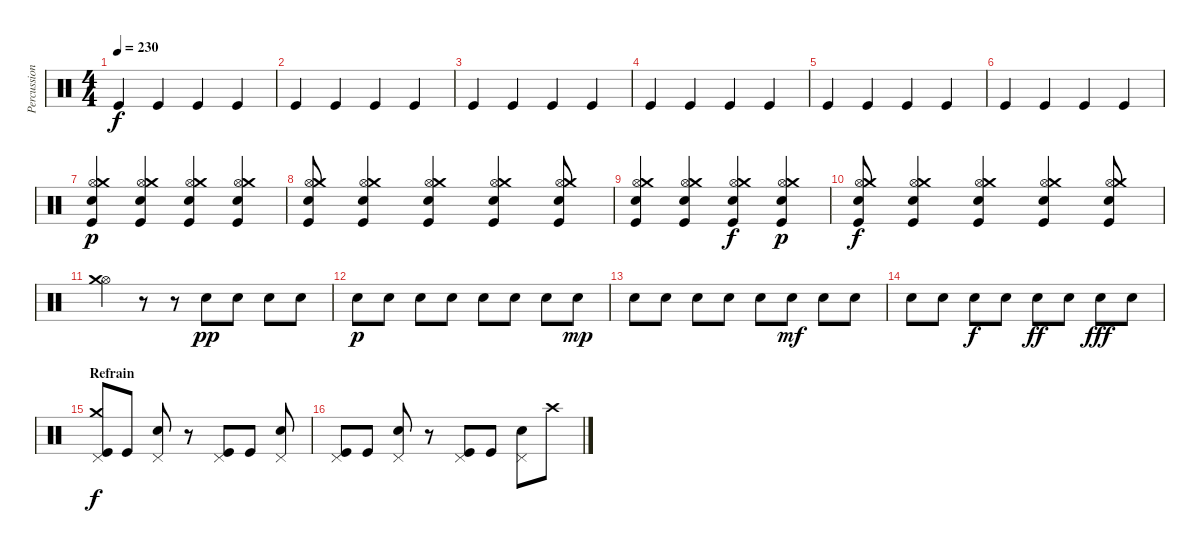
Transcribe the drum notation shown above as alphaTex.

\track ("Percussion" "Percussion") {instrument percussion}
\staff {score}
\articulation defaults
\ts (4 4)
\tempo 230
\clef neutral
\ks c "Kick (hit)".4{dy f} "Kick (hit)".4 "Kick (hit)".4 "Kick (hit)".4
|
"Kick (hit)".4 "Kick (hit)".4 "Kick (hit)".4 "Kick (hit)".4 |
"Kick (hit)".4 "Kick (hit)".4 "Kick (hit)".4 "Kick (hit)".4 |
"Kick (hit)".4 "Kick (hit)".4 "Kick (hit)".4 "Kick (hit)".4 |
"Kick (hit)".4 "Kick (hit)".4 "Kick (hit)".4 "Kick (hit)".4 |
"Kick (hit)".4 "Kick (hit)".4 "Kick (hit)".4 "Kick (hit)".4 |
("Hi-Hat (open)" "Crash medium (hit)" "Kick (hit)" "Electric Snare (hit)").4{dy p} ("Hi-Hat (open)" "Crash medium (hit)" "Kick (hit)" "Electric Snare (hit)").4 ("Hi-Hat (open)" "Crash medium (hit)" "Kick (hit)" "Electric Snare (hit)").4 ("Hi-Hat (open)" "Crash medium (hit)" "Kick (hit)" "Electric Snare (hit)").4 |
("Hi-Hat (open)" "Crash medium (hit)" "Kick (hit)" "Electric Snare (hit)").8 ("Hi-Hat (open)" "Crash medium (hit)" "Kick (hit)" "Electric Snare (hit)").4 ("Hi-Hat (open)" "Crash medium (hit)" "Kick (hit)" "Electric Snare (hit)").4 ("Hi-Hat (open)" "Crash medium (hit)" "Kick (hit)" "Electric Snare (hit)").4 ("Hi-Hat (open)" "Crash medium (hit)" "Kick (hit)" "Electric Snare (hit)").8 |
("Hi-Hat (open)" "Crash medium (hit)" "Kick (hit)" "Electric Snare (hit)").4 ("Hi-Hat (open)" "Crash medium (hit)" "Kick (hit)" "Electric Snare (hit)").4 ("Hi-Hat (open)" "Crash medium (hit)" "Kick (hit)" "Electric Snare (hit)").4{dy f} ("Hi-Hat (open)" "Crash medium (hit)" "Kick (hit)" "Electric Snare (hit)").4{dy p} |
("Hi-Hat (open)" "Crash medium (hit)" "Kick (hit)" "Electric Snare (hit)").8{dy f} ("Hi-Hat (open)" "Crash medium (hit)" "Kick (hit)" "Electric Snare (hit)").4 ("Hi-Hat (open)" "Crash medium (hit)" "Kick (hit)" "Electric Snare (hit)").4 ("Hi-Hat (open)" "Crash medium (hit)" "Kick (hit)" "Electric Snare (hit)").4 ("Hi-Hat (open)" "Crash medium (hit)" "Kick (hit)" "Electric Snare (hit)").8 |
("Hi-Hat (open)" "Crash medium (hit)").4 r.8 r.8 "Electric Snare (hit)".8{dy pp} "Electric Snare (hit)".8 "Electric Snare (hit)".8 "Electric Snare (hit)".8 |
"Electric Snare (hit)".8{dy p} "Electric Snare (hit)".8 "Electric Snare (hit)".8 "Electric Snare (hit)".8 "Electric Snare (hit)".8 "Electric Snare (hit)".8 "Electric Snare (hit)".8 "Electric Snare (hit)".8{dy mp} |
"Electric Snare (hit)".8 "Electric Snare (hit)".8 "Electric Snare (hit)".8 "Electric Snare (hit)".8 "Electric Snare (hit)".8 "Electric Snare (hit)".8{dy mf} "Electric Snare (hit)".8 "Electric Snare (hit)".8 |
"Electric Snare (hit)".8 "Electric Snare (hit)".8 "Electric Snare (hit)".8{dy f} "Electric Snare (hit)".8 "Electric Snare (hit)".8{dy ff} "Electric Snare (hit)".8 "Electric Snare (hit)".8{dy fff} "Electric Snare (hit)".8 |
\section ("" "Refrain")
("Pedal Hi-Hat (hit)" "Crash medium (hit)" "Kick (hit)").8{dy f} "Kick (hit)".8 ("Pedal Hi-Hat (hit)" "Electric Snare (hit)").8 r.8 ("Pedal Hi-Hat (hit)" "Kick (hit)").8 "Kick (hit)".8 ("Pedal Hi-Hat (hit)" "Electric Snare (hit)").8 |
("Pedal Hi-Hat (hit)" "Kick (hit)").8 "Kick (hit)".8 ("Pedal Hi-Hat (hit)" "Electric Snare (hit)").8 r.8 ("Pedal Hi-Hat (hit)" "Kick (hit)").8 "Kick (hit)".8 ("Pedal Hi-Hat (hit)" "Electric Snare (hit)").8 "Crash high (hit)".8
